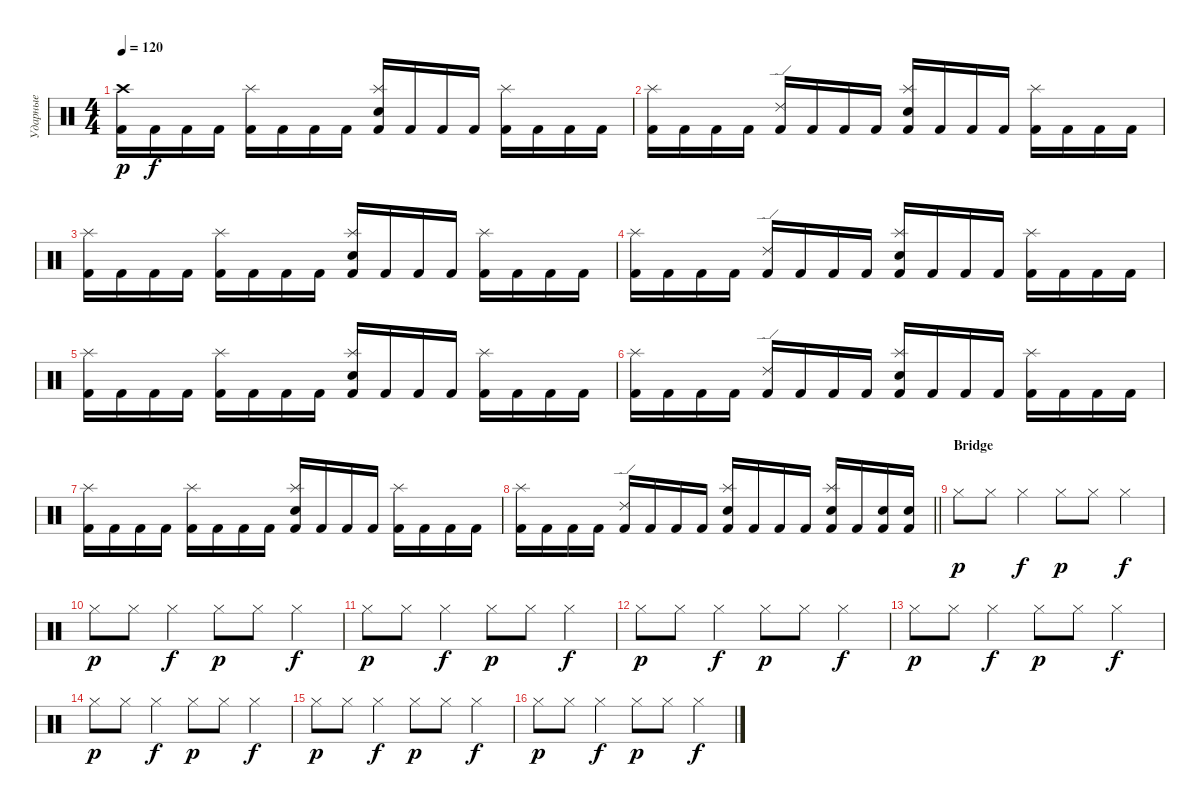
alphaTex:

\track ("Ударные" "Ударные") {instrument percussion}
\staff {score}
\articulation defaults
\ts (4 4)
\tempo 120
\clef neutral
\ks c
("Kick (hit) 2" "Crash high (hit)").16{dy p} "Kick (hit) 2".16{dy f} "Kick (hit) 2".16 "Kick (hit) 2".16 ("Kick (hit) 2" "Splash (hit)").16 "Kick (hit) 2".16 "Kick (hit) 2".16 "Kick (hit) 2".16 ("Kick (hit) 2" "Splash (hit)" "Snare (hit) 2").16 "Kick (hit) 2".16 "Kick (hit) 2".16 "Kick (hit) 2".16 ("Kick (hit) 2" "Splash (hit)").16 "Kick (hit) 2".16 "Kick (hit) 2".16 "Kick (hit) 2".16 |
("Kick (hit) 2" "Splash (hit)").16 "Kick (hit) 2".16 "Kick (hit) 2".16 "Kick (hit) 2".16 ("Kick (hit) 2" "Ride (edge) 2").16 "Kick (hit) 2".16 "Kick (hit) 2".16 "Kick (hit) 2".16 ("Kick (hit) 2" "Splash (hit)" "Snare (hit) 2").16 "Kick (hit) 2".16 "Kick (hit) 2".16 "Kick (hit) 2".16 ("Kick (hit) 2" "Splash (hit)").16 "Kick (hit) 2".16 "Kick (hit) 2".16 "Kick (hit) 2".16 |
("Kick (hit) 2" "Splash (hit)").16 "Kick (hit) 2".16 "Kick (hit) 2".16 "Kick (hit) 2".16 ("Kick (hit) 2" "Splash (hit)").16 "Kick (hit) 2".16 "Kick (hit) 2".16 "Kick (hit) 2".16 ("Kick (hit) 2" "Splash (hit)" "Snare (hit) 2").16 "Kick (hit) 2".16 "Kick (hit) 2".16 "Kick (hit) 2".16 ("Kick (hit) 2" "Splash (hit)").16 "Kick (hit) 2".16 "Kick (hit) 2".16 "Kick (hit) 2".16 |
("Kick (hit) 2" "Splash (hit)").16 "Kick (hit) 2".16 "Kick (hit) 2".16 "Kick (hit) 2".16 ("Kick (hit) 2" "Ride (edge) 2").16 "Kick (hit) 2".16 "Kick (hit) 2".16 "Kick (hit) 2".16 ("Kick (hit) 2" "Splash (hit)" "Snare (hit) 2").16 "Kick (hit) 2".16 "Kick (hit) 2".16 "Kick (hit) 2".16 ("Kick (hit) 2" "Splash (hit)").16 "Kick (hit) 2".16 "Kick (hit) 2".16 "Kick (hit) 2".16 |
("Kick (hit) 2" "Splash (hit)").16 "Kick (hit) 2".16 "Kick (hit) 2".16 "Kick (hit) 2".16 ("Kick (hit) 2" "Splash (hit)").16 "Kick (hit) 2".16 "Kick (hit) 2".16 "Kick (hit) 2".16 ("Kick (hit) 2" "Splash (hit)" "Snare (hit) 2").16 "Kick (hit) 2".16 "Kick (hit) 2".16 "Kick (hit) 2".16 ("Kick (hit) 2" "Splash (hit)").16 "Kick (hit) 2".16 "Kick (hit) 2".16 "Kick (hit) 2".16 |
("Kick (hit) 2" "Splash (hit)").16 "Kick (hit) 2".16 "Kick (hit) 2".16 "Kick (hit) 2".16 ("Kick (hit) 2" "Ride (edge) 2").16 "Kick (hit) 2".16 "Kick (hit) 2".16 "Kick (hit) 2".16 ("Kick (hit) 2" "Splash (hit)" "Snare (hit) 2").16 "Kick (hit) 2".16 "Kick (hit) 2".16 "Kick (hit) 2".16 ("Kick (hit) 2" "Splash (hit)").16 "Kick (hit) 2".16 "Kick (hit) 2".16 "Kick (hit) 2".16 |
("Kick (hit) 2" "Splash (hit)").16 "Kick (hit) 2".16 "Kick (hit) 2".16 "Kick (hit) 2".16 ("Kick (hit) 2" "Splash (hit)").16 "Kick (hit) 2".16 "Kick (hit) 2".16 "Kick (hit) 2".16 ("Kick (hit) 2" "Splash (hit)" "Snare (hit) 2").16 "Kick (hit) 2".16 "Kick (hit) 2".16 "Kick (hit) 2".16 ("Kick (hit) 2" "Splash (hit)").16 "Kick (hit) 2".16 "Kick (hit) 2".16 "Kick (hit) 2".16 |
\barLineRight lightlight
("Kick (hit) 2" "Splash (hit)").16 "Kick (hit) 2".16 "Kick (hit) 2".16 "Kick (hit) 2".16 ("Kick (hit) 2" "Ride (edge) 2").16 "Kick (hit) 2".16 "Kick (hit) 2".16 "Kick (hit) 2".16 ("Kick (hit) 2" "Splash (hit)" "Snare (hit) 2").16 "Kick (hit) 2".16 "Kick (hit) 2".16 "Kick (hit) 2".16 ("Kick (hit) 2" "Splash (hit)" "Snare (hit) 2").16 "Kick (hit) 2".16 ("Kick (hit) 2" "Snare (hit) 2").16 ("Kick (hit) 2" "Snare (hit) 2").16 |
\section ("" "Bridge")
"Hi-Hat (closed)".8{dy p} "Hi-Hat (closed)".8 "Hi-Hat (closed)".4{dy f} "Hi-Hat (closed)".8{dy p} "Hi-Hat (closed)".8 "Hi-Hat (closed)".4{dy f} |
"Hi-Hat (closed)".8{dy p} "Hi-Hat (closed)".8 "Hi-Hat (closed)".4{dy f} "Hi-Hat (closed)".8{dy p} "Hi-Hat (closed)".8 "Hi-Hat (closed)".4{dy f} |
"Hi-Hat (closed)".8{dy p} "Hi-Hat (closed)".8 "Hi-Hat (closed)".4{dy f} "Hi-Hat (closed)".8{dy p} "Hi-Hat (closed)".8 "Hi-Hat (closed)".4{dy f} |
"Hi-Hat (closed)".8{dy p} "Hi-Hat (closed)".8 "Hi-Hat (closed)".4{dy f} "Hi-Hat (closed)".8{dy p} "Hi-Hat (closed)".8 "Hi-Hat (closed)".4{dy f} |
"Hi-Hat (closed)".8{dy p} "Hi-Hat (closed)".8 "Hi-Hat (closed)".4{dy f} "Hi-Hat (closed)".8{dy p} "Hi-Hat (closed)".8 "Hi-Hat (closed)".4{dy f} |
"Hi-Hat (closed)".8{dy p} "Hi-Hat (closed)".8 "Hi-Hat (closed)".4{dy f} "Hi-Hat (closed)".8{dy p} "Hi-Hat (closed)".8 "Hi-Hat (closed)".4{dy f} |
"Hi-Hat (closed)".8{dy p} "Hi-Hat (closed)".8 "Hi-Hat (closed)".4{dy f} "Hi-Hat (closed)".8{dy p} "Hi-Hat (closed)".8 "Hi-Hat (closed)".4{dy f} |
"Hi-Hat (closed)".8{dy p} "Hi-Hat (closed)".8 "Hi-Hat (closed)".4{dy f} "Hi-Hat (closed)".8{dy p} "Hi-Hat (closed)".8 "Hi-Hat (closed)".4{dy f}
